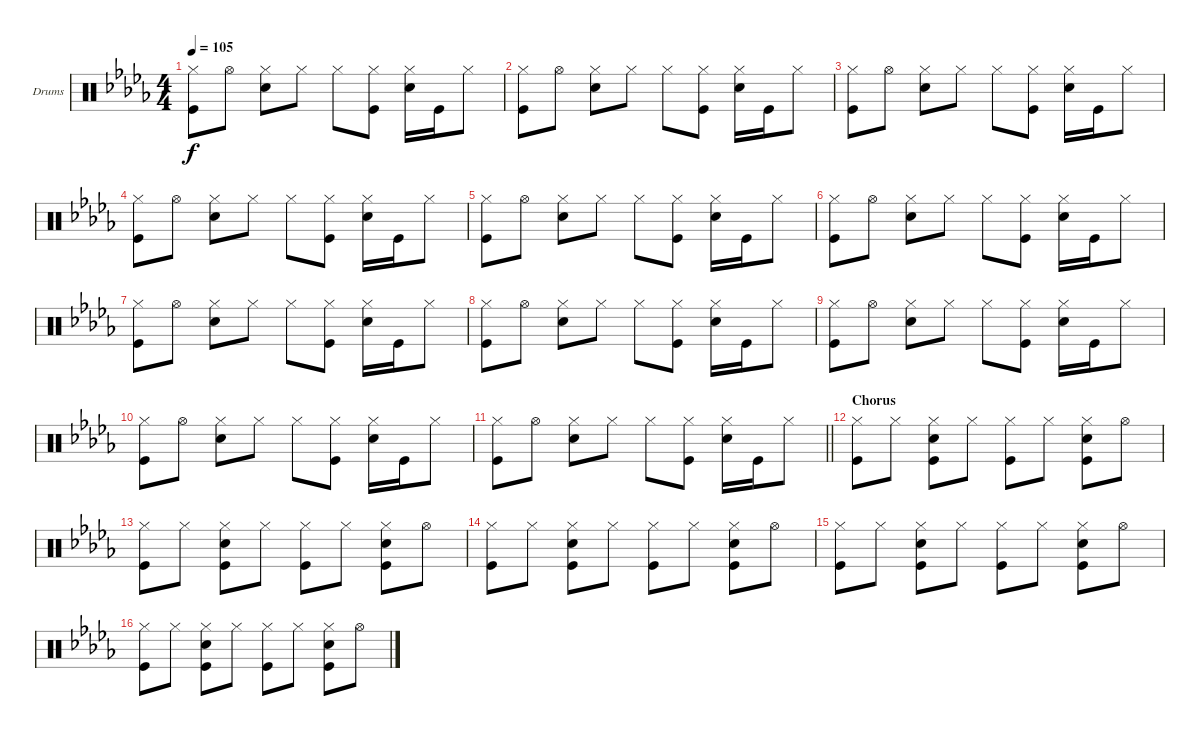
\bracketExtendMode groupsimilarinstruments
\firstSystemTrackNameOrientation horizontal
\otherSystemsTrackNameOrientation horizontal
\track ("Fabrizio" "Drums") {instrument percussion}
\staff {score}
\articulation defaults
\ts (4 4)
\tempo 105
\clef neutral
\ks db
("Hi-Hat (closed)" "Kick (hit)").8{dy f} "Hi-Hat (open)".8 ("Hi-Hat (closed)" "Snare (hit) 2").8 "Hi-Hat (closed)".8 "Hi-Hat (closed)".8 ("Hi-Hat (closed)" "Kick (hit)").8 ("Hi-Hat (closed)" "Snare (hit) 2").16 "Kick (hit)".16 "Hi-Hat (closed)".8 |
("Hi-Hat (closed)" "Kick (hit)").8 "Hi-Hat (open)".8 ("Hi-Hat (closed)" "Snare (hit) 2").8 "Hi-Hat (closed)".8 "Hi-Hat (closed)".8 ("Hi-Hat (closed)" "Kick (hit)").8 ("Hi-Hat (closed)" "Snare (hit) 2").16 "Kick (hit)".16 "Hi-Hat (closed)".8 |
("Hi-Hat (closed)" "Kick (hit)").8 "Hi-Hat (open)".8 ("Hi-Hat (closed)" "Snare (hit) 2").8 "Hi-Hat (closed)".8 "Hi-Hat (closed)".8 ("Hi-Hat (closed)" "Kick (hit)").8 ("Hi-Hat (closed)" "Snare (hit) 2").16 "Kick (hit)".16 "Hi-Hat (closed)".8 |
("Hi-Hat (closed)" "Kick (hit)").8 "Hi-Hat (open)".8 ("Hi-Hat (closed)" "Snare (hit) 2").8 "Hi-Hat (closed)".8 "Hi-Hat (closed)".8 ("Hi-Hat (closed)" "Kick (hit)").8 ("Hi-Hat (closed)" "Snare (hit) 2").16 "Kick (hit)".16 "Hi-Hat (closed)".8 |
("Hi-Hat (closed)" "Kick (hit)").8 "Hi-Hat (open)".8 ("Hi-Hat (closed)" "Snare (hit) 2").8 "Hi-Hat (closed)".8 "Hi-Hat (closed)".8 ("Hi-Hat (closed)" "Kick (hit)").8 ("Hi-Hat (closed)" "Snare (hit) 2").16 "Kick (hit)".16 "Hi-Hat (closed)".8 |
("Hi-Hat (closed)" "Kick (hit)").8 "Hi-Hat (open)".8 ("Hi-Hat (closed)" "Snare (hit) 2").8 "Hi-Hat (closed)".8 "Hi-Hat (closed)".8 ("Hi-Hat (closed)" "Kick (hit)").8 ("Hi-Hat (closed)" "Snare (hit) 2").16 "Kick (hit)".16 "Hi-Hat (closed)".8 |
("Hi-Hat (closed)" "Kick (hit)").8 "Hi-Hat (open)".8 ("Hi-Hat (closed)" "Snare (hit) 2").8 "Hi-Hat (closed)".8 "Hi-Hat (closed)".8 ("Hi-Hat (closed)" "Kick (hit)").8 ("Hi-Hat (closed)" "Snare (hit) 2").16 "Kick (hit)".16 "Hi-Hat (closed)".8 |
("Hi-Hat (closed)" "Kick (hit)").8 "Hi-Hat (open)".8 ("Hi-Hat (closed)" "Snare (hit) 2").8 "Hi-Hat (closed)".8 "Hi-Hat (closed)".8 ("Hi-Hat (closed)" "Kick (hit)").8 ("Hi-Hat (closed)" "Snare (hit) 2").16 "Kick (hit)".16 "Hi-Hat (closed)".8 |
("Hi-Hat (closed)" "Kick (hit)").8 "Hi-Hat (open)".8 ("Hi-Hat (closed)" "Snare (hit) 2").8 "Hi-Hat (closed)".8 "Hi-Hat (closed)".8 ("Hi-Hat (closed)" "Kick (hit)").8 ("Hi-Hat (closed)" "Snare (hit) 2").16 "Kick (hit)".16 "Hi-Hat (closed)".8 |
("Hi-Hat (closed)" "Kick (hit)").8 "Hi-Hat (open)".8 ("Hi-Hat (closed)" "Snare (hit) 2").8 "Hi-Hat (closed)".8 "Hi-Hat (closed)".8 ("Hi-Hat (closed)" "Kick (hit)").8 ("Hi-Hat (closed)" "Snare (hit) 2").16 "Kick (hit)".16 "Hi-Hat (closed)".8 |
\barLineRight lightlight
("Hi-Hat (closed)" "Kick (hit)").8 "Hi-Hat (open)".8 ("Hi-Hat (closed)" "Snare (hit) 2").8 "Hi-Hat (closed)".8 "Hi-Hat (closed)".8 ("Hi-Hat (closed)" "Kick (hit)").8 ("Hi-Hat (closed)" "Snare (hit) 2").16 "Kick (hit)".16 "Hi-Hat (closed)".8 |
\section ("" "Chorus")
("Hi-Hat (closed)" "Kick (hit)").8 "Hi-Hat (closed)".8 ("Hi-Hat (closed)" "Snare (hit) 2" "Kick (hit)").8 "Hi-Hat (closed)".8 ("Hi-Hat (closed)" "Kick (hit)").8 "Hi-Hat (closed)".8 ("Hi-Hat (closed)" "Snare (hit) 2" "Kick (hit)").8 "Hi-Hat (open)".8 |
("Hi-Hat (closed)" "Kick (hit)").8 "Hi-Hat (closed)".8 ("Hi-Hat (closed)" "Snare (hit) 2" "Kick (hit)").8 "Hi-Hat (closed)".8 ("Hi-Hat (closed)" "Kick (hit)").8 "Hi-Hat (closed)".8 ("Hi-Hat (closed)" "Snare (hit) 2" "Kick (hit)").8 "Hi-Hat (open)".8 |
("Hi-Hat (closed)" "Kick (hit)").8 "Hi-Hat (closed)".8 ("Hi-Hat (closed)" "Snare (hit) 2" "Kick (hit)").8 "Hi-Hat (closed)".8 ("Hi-Hat (closed)" "Kick (hit)").8 "Hi-Hat (closed)".8 ("Hi-Hat (closed)" "Snare (hit) 2" "Kick (hit)").8 "Hi-Hat (open)".8 |
("Hi-Hat (closed)" "Kick (hit)").8 "Hi-Hat (closed)".8 ("Hi-Hat (closed)" "Snare (hit) 2" "Kick (hit)").8 "Hi-Hat (closed)".8 ("Hi-Hat (closed)" "Kick (hit)").8 "Hi-Hat (closed)".8 ("Hi-Hat (closed)" "Snare (hit) 2" "Kick (hit)").8 "Hi-Hat (open)".8 |
("Hi-Hat (closed)" "Kick (hit)").8 "Hi-Hat (closed)".8 ("Hi-Hat (closed)" "Snare (hit) 2" "Kick (hit)").8 "Hi-Hat (closed)".8 ("Hi-Hat (closed)" "Kick (hit)").8 "Hi-Hat (closed)".8 ("Hi-Hat (closed)" "Snare (hit) 2" "Kick (hit)").8 "Hi-Hat (open)".8
